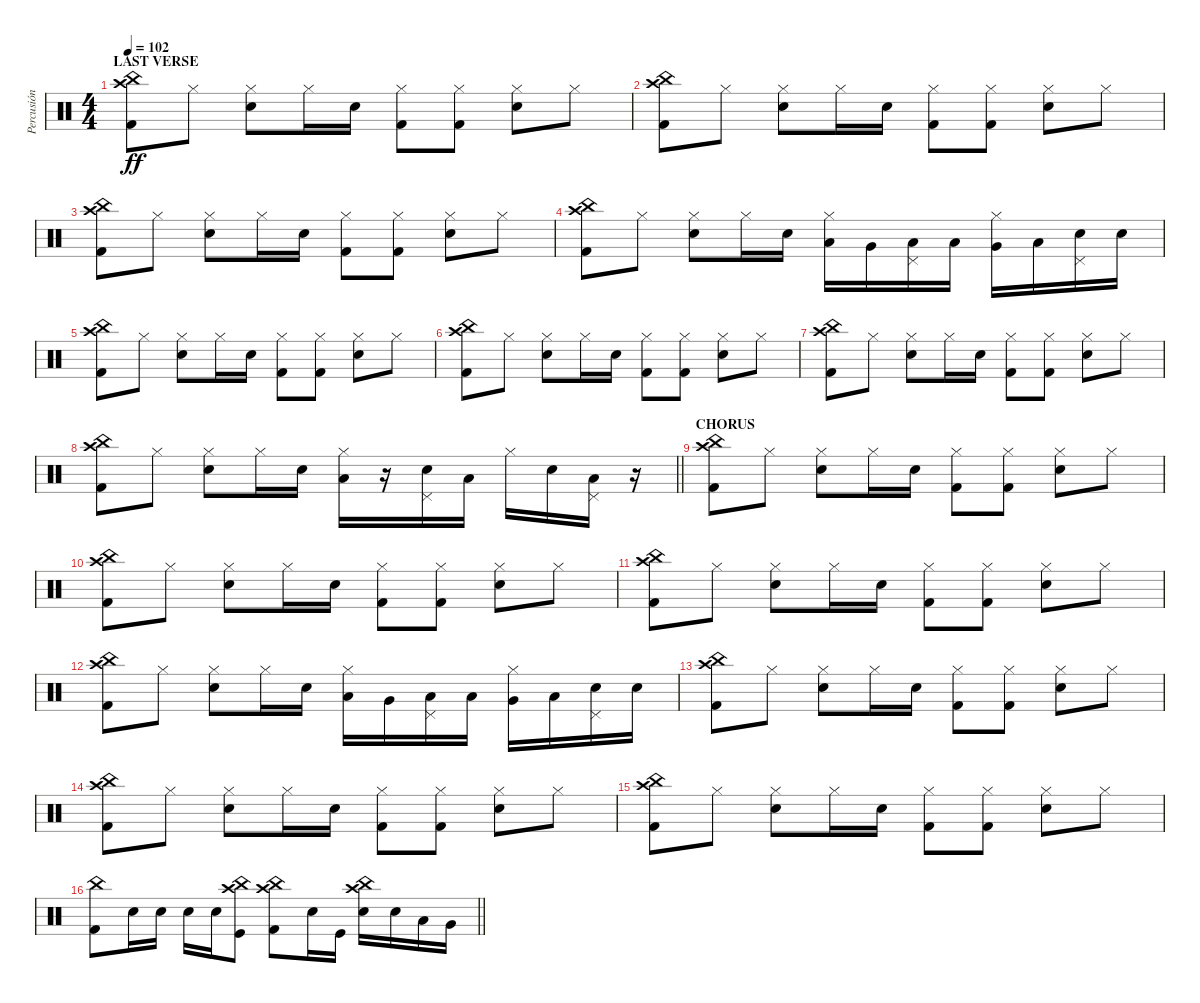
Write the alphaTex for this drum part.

\track ("Percusión" "Percusión") {instrument percussion}
\staff {score}
\articulation defaults
\ts (4 4)
\section ("" "LAST VERSE")
\tempo 102
\clef neutral
\ks c
("Kick (hit) 2" "China (hit)" "Crash high (hit)").8{dy ff} "Hi-Hat (closed)".8 ("Electric Snare (hit)" "Hi-Hat (closed)").8 "Hi-Hat (closed)".16 "Electric Snare (hit)".16 ("Kick (hit) 2" "Hi-Hat (closed)").8 ("Kick (hit) 2" "Hi-Hat (closed)").8 ("Electric Snare (hit)" "Hi-Hat (closed)").8 "Hi-Hat (closed)".8 |
("Kick (hit) 2" "China (hit)" "Crash high (hit)").8 "Hi-Hat (closed)".8 ("Electric Snare (hit)" "Hi-Hat (closed)").8 "Hi-Hat (closed)".16 "Electric Snare (hit)".16 ("Kick (hit) 2" "Hi-Hat (closed)").8 ("Kick (hit) 2" "Hi-Hat (closed)").8 ("Electric Snare (hit)" "Hi-Hat (closed)").8 "Hi-Hat (closed)".8 |
("Kick (hit) 2" "China (hit)" "Crash high (hit)").8 "Hi-Hat (closed)".8 ("Electric Snare (hit)" "Hi-Hat (closed)").8 "Hi-Hat (closed)".16 "Electric Snare (hit)".16 ("Kick (hit) 2" "Hi-Hat (closed)").8 ("Kick (hit) 2" "Hi-Hat (closed)").8 ("Electric Snare (hit)" "Hi-Hat (closed)").8 "Hi-Hat (closed)".8 |
("Kick (hit) 2" "China (hit)" "Crash high (hit)").8 "Hi-Hat (closed)".8 ("Electric Snare (hit)" "Hi-Hat (closed)").8 "Hi-Hat (closed)".16 "Electric Snare (hit)".16 ("Low Tom (hit)" "Hi-Hat (closed)").16 "Very Low Tom (hit)".16 ("Low Floor Tom (hit)" "Pedal Hi-Hat (hit)").16 "Low Tom (hit)".16 ("Very Low Tom (hit)" "Hi-Hat (closed)").16 "Low Floor Tom (hit)".16 ("Electric Snare (hit)" "Pedal Hi-Hat (hit)").16 "Electric Snare (hit)".16 |
("Kick (hit) 2" "China (hit)" "Crash high (hit)").8 "Hi-Hat (closed)".8 ("Electric Snare (hit)" "Hi-Hat (closed)").8 "Hi-Hat (closed)".16 "Electric Snare (hit)".16 ("Kick (hit) 2" "Hi-Hat (closed)").8 ("Kick (hit) 2" "Hi-Hat (closed)").8 ("Electric Snare (hit)" "Hi-Hat (closed)").8 "Hi-Hat (closed)".8 |
("Kick (hit) 2" "China (hit)" "Crash high (hit)").8 "Hi-Hat (closed)".8 ("Electric Snare (hit)" "Hi-Hat (closed)").8 "Hi-Hat (closed)".16 "Electric Snare (hit)".16 ("Kick (hit) 2" "Hi-Hat (closed)").8 ("Kick (hit) 2" "Hi-Hat (closed)").8 ("Electric Snare (hit)" "Hi-Hat (closed)").8 "Hi-Hat (closed)".8 |
("Kick (hit) 2" "China (hit)" "Crash high (hit)").8 "Hi-Hat (closed)".8 ("Electric Snare (hit)" "Hi-Hat (closed)").8 "Hi-Hat (closed)".16 "Electric Snare (hit)".16 ("Kick (hit) 2" "Hi-Hat (closed)").8 ("Kick (hit) 2" "Hi-Hat (closed)").8 ("Electric Snare (hit)" "Hi-Hat (closed)").8 "Hi-Hat (closed)".8 |
\barLineRight lightlight
("Kick (hit) 2" "China (hit)" "Crash high (hit)").8 "Hi-Hat (closed)".8 ("Electric Snare (hit)" "Hi-Hat (closed)").8 "Hi-Hat (closed)".16 "Electric Snare (hit)".16 ("Low Tom (hit)" "Hi-Hat (closed)").16 r.16 ("Electric Snare (hit)" "Pedal Hi-Hat (hit)").16 "Low Tom (hit)".16 "Hi-Hat (closed)".16 "Electric Snare (hit)".16 ("Low Tom (hit)" "Pedal Hi-Hat (hit)").16 r.16 |
\section ("" "CHORUS")
("Kick (hit) 2" "China (hit)" "Crash high (hit)").8 "Hi-Hat (closed)".8 ("Electric Snare (hit)" "Hi-Hat (closed)").8 "Hi-Hat (closed)".16 "Electric Snare (hit)".16 ("Kick (hit) 2" "Hi-Hat (closed)").8 ("Kick (hit) 2" "Hi-Hat (closed)").8 ("Electric Snare (hit)" "Hi-Hat (closed)").8 "Hi-Hat (closed)".8 |
("Kick (hit) 2" "China (hit)" "Crash high (hit)").8 "Hi-Hat (closed)".8 ("Electric Snare (hit)" "Hi-Hat (closed)").8 "Hi-Hat (closed)".16 "Electric Snare (hit)".16 ("Kick (hit) 2" "Hi-Hat (closed)").8 ("Kick (hit) 2" "Hi-Hat (closed)").8 ("Electric Snare (hit)" "Hi-Hat (closed)").8 "Hi-Hat (closed)".8 |
("Kick (hit) 2" "China (hit)" "Crash high (hit)").8 "Hi-Hat (closed)".8 ("Electric Snare (hit)" "Hi-Hat (closed)").8 "Hi-Hat (closed)".16 "Electric Snare (hit)".16 ("Kick (hit) 2" "Hi-Hat (closed)").8 ("Kick (hit) 2" "Hi-Hat (closed)").8 ("Electric Snare (hit)" "Hi-Hat (closed)").8 "Hi-Hat (closed)".8 |
("Kick (hit) 2" "China (hit)" "Crash high (hit)").8 "Hi-Hat (closed)".8 ("Electric Snare (hit)" "Hi-Hat (closed)").8 "Hi-Hat (closed)".16 "Electric Snare (hit)".16 ("Low Tom (hit)" "Hi-Hat (closed)").16 "Very Low Tom (hit)".16 ("Low Floor Tom (hit)" "Pedal Hi-Hat (hit)").16 "Low Tom (hit)".16 ("Very Low Tom (hit)" "Hi-Hat (closed)").16 "Low Floor Tom (hit)".16 ("Electric Snare (hit)" "Pedal Hi-Hat (hit)").16 "Electric Snare (hit)".16 |
("Kick (hit) 2" "China (hit)" "Crash high (hit)").8 "Hi-Hat (closed)".8 ("Electric Snare (hit)" "Hi-Hat (closed)").8 "Hi-Hat (closed)".16 "Electric Snare (hit)".16 ("Kick (hit) 2" "Hi-Hat (closed)").8 ("Kick (hit) 2" "Hi-Hat (closed)").8 ("Electric Snare (hit)" "Hi-Hat (closed)").8 "Hi-Hat (closed)".8 |
("Kick (hit) 2" "China (hit)" "Crash high (hit)").8 "Hi-Hat (closed)".8 ("Electric Snare (hit)" "Hi-Hat (closed)").8 "Hi-Hat (closed)".16 "Electric Snare (hit)".16 ("Kick (hit) 2" "Hi-Hat (closed)").8 ("Kick (hit) 2" "Hi-Hat (closed)").8 ("Electric Snare (hit)" "Hi-Hat (closed)").8 "Hi-Hat (closed)".8 |
("Kick (hit) 2" "China (hit)" "Crash high (hit)").8 "Hi-Hat (closed)".8 ("Electric Snare (hit)" "Hi-Hat (closed)").8 "Hi-Hat (closed)".16 "Electric Snare (hit)".16 ("Kick (hit) 2" "Hi-Hat (closed)").8 ("Kick (hit) 2" "Hi-Hat (closed)").8 ("Electric Snare (hit)" "Hi-Hat (closed)").8 "Hi-Hat (closed)".8 |
\barLineRight lightlight
("Kick (hit) 2" "China (hit)").8 "Electric Snare (hit)".16 "Electric Snare (hit)".16 "Electric Snare (hit)".16 "Electric Snare (hit)".16 ("Kick (hit)" "China (hit)" "Crash high (hit)").8 ("Kick (hit) 2" "China (hit)" "Crash high (hit)").8 "Electric Snare (hit)".16 "Kick (hit)".16 ("Electric Snare (hit)" "China (hit)" "Crash high (hit)").16 "Electric Snare (hit)".16 "Low Floor Tom (hit)".16 "Very Low Tom (hit)".16
